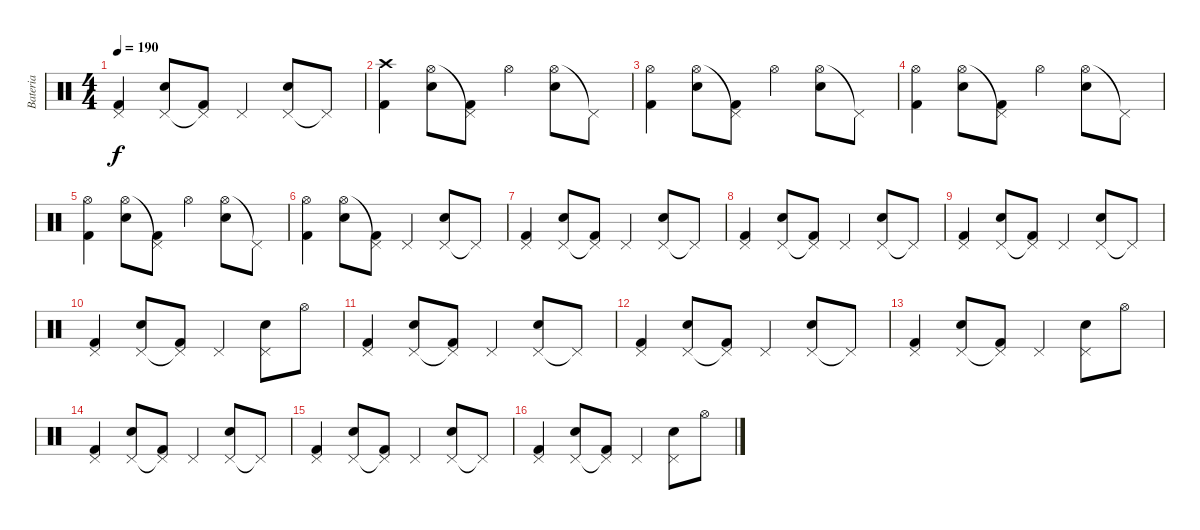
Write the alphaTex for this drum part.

\track ("Bateria" "Bateria") {instrument percussion}
\staff {score}
\articulation defaults
\ts (4 4)
\tempo 190
\clef neutral
\ks c
("Pedal Hi-Hat (hit)" "Kick (hit) 2").4{dy f} ("Pedal Hi-Hat (hit)" "Snare (hit) 2").8 ("Pedal Hi-Hat (hit)"{t} "Kick (hit) 2").8 "Pedal Hi-Hat (hit)".4 ("Pedal Hi-Hat (hit)" "Snare (hit) 2").8 "Pedal Hi-Hat (hit)"{t}.8 |
("Crash high (hit)" "Kick (hit) 2").4 ("Hi-Hat (open)" "Snare (hit) 2").8 ("Pedal Hi-Hat (hit)"{t} "Kick (hit) 2").8 "Hi-Hat (open)".4 ("Hi-Hat (open)" "Snare (hit) 2").8 "Pedal Hi-Hat (hit)"{t}.8 |
("Hi-Hat (open)" "Kick (hit) 2").4 ("Hi-Hat (open)" "Snare (hit) 2").8 ("Pedal Hi-Hat (hit)"{t} "Kick (hit) 2").8 "Hi-Hat (open)".4 ("Hi-Hat (open)" "Snare (hit) 2").8 "Pedal Hi-Hat (hit)"{t}.8 |
("Hi-Hat (open)" "Kick (hit) 2").4 ("Hi-Hat (open)" "Snare (hit) 2").8 ("Pedal Hi-Hat (hit)"{t} "Kick (hit) 2").8 "Hi-Hat (open)".4 ("Hi-Hat (open)" "Snare (hit) 2").8 "Pedal Hi-Hat (hit)"{t}.8 |
("Hi-Hat (open)" "Kick (hit) 2").4 ("Hi-Hat (open)" "Snare (hit) 2").8 ("Pedal Hi-Hat (hit)"{t} "Kick (hit) 2").8 "Hi-Hat (open)".4 ("Hi-Hat (open)" "Snare (hit) 2").8 "Pedal Hi-Hat (hit)"{t}.8 |
("Hi-Hat (open)" "Kick (hit) 2").4 ("Hi-Hat (open)" "Snare (hit) 2").8 ("Pedal Hi-Hat (hit)"{t} "Kick (hit) 2").8 "Pedal Hi-Hat (hit)".4 ("Pedal Hi-Hat (hit)" "Snare (hit) 2").8 "Pedal Hi-Hat (hit)"{t}.8 |
("Pedal Hi-Hat (hit)" "Kick (hit) 2").4 ("Pedal Hi-Hat (hit)" "Snare (hit) 2").8 ("Pedal Hi-Hat (hit)"{t} "Kick (hit) 2").8 "Pedal Hi-Hat (hit)".4 ("Pedal Hi-Hat (hit)" "Snare (hit) 2").8 "Pedal Hi-Hat (hit)"{t}.8 |
("Pedal Hi-Hat (hit)" "Kick (hit) 2").4 ("Pedal Hi-Hat (hit)" "Snare (hit) 2").8 ("Pedal Hi-Hat (hit)"{t} "Kick (hit) 2").8 "Pedal Hi-Hat (hit)".4 ("Pedal Hi-Hat (hit)" "Snare (hit) 2").8 "Pedal Hi-Hat (hit)"{t}.8 |
("Pedal Hi-Hat (hit)" "Kick (hit) 2").4 ("Pedal Hi-Hat (hit)" "Snare (hit) 2").8 ("Pedal Hi-Hat (hit)"{t} "Kick (hit) 2").8 "Pedal Hi-Hat (hit)".4 ("Pedal Hi-Hat (hit)" "Snare (hit) 2").8 "Pedal Hi-Hat (hit)"{t}.8 |
("Pedal Hi-Hat (hit)" "Kick (hit) 2").4 ("Pedal Hi-Hat (hit)" "Snare (hit) 2").8 ("Pedal Hi-Hat (hit)"{t} "Kick (hit) 2").8 "Pedal Hi-Hat (hit)".4 ("Pedal Hi-Hat (hit)" "Snare (hit) 2").8 "Hi-Hat (open)".8 |
("Pedal Hi-Hat (hit)" "Kick (hit) 2").4 ("Pedal Hi-Hat (hit)" "Snare (hit) 2").8 ("Pedal Hi-Hat (hit)"{t} "Kick (hit) 2").8 "Pedal Hi-Hat (hit)".4 ("Pedal Hi-Hat (hit)" "Snare (hit) 2").8 "Pedal Hi-Hat (hit)"{t}.8 |
("Pedal Hi-Hat (hit)" "Kick (hit) 2").4 ("Pedal Hi-Hat (hit)" "Snare (hit) 2").8 ("Pedal Hi-Hat (hit)"{t} "Kick (hit) 2").8 "Pedal Hi-Hat (hit)".4 ("Pedal Hi-Hat (hit)" "Snare (hit) 2").8 "Pedal Hi-Hat (hit)"{t}.8 |
("Pedal Hi-Hat (hit)" "Kick (hit) 2").4 ("Pedal Hi-Hat (hit)" "Snare (hit) 2").8 ("Pedal Hi-Hat (hit)"{t} "Kick (hit) 2").8 "Pedal Hi-Hat (hit)".4 ("Pedal Hi-Hat (hit)" "Snare (hit) 2").8 "Hi-Hat (open)".8 |
("Pedal Hi-Hat (hit)" "Kick (hit) 2").4 ("Pedal Hi-Hat (hit)" "Snare (hit) 2").8 ("Pedal Hi-Hat (hit)"{t} "Kick (hit) 2").8 "Pedal Hi-Hat (hit)".4 ("Pedal Hi-Hat (hit)" "Snare (hit) 2").8 "Pedal Hi-Hat (hit)"{t}.8 |
("Pedal Hi-Hat (hit)" "Kick (hit) 2").4 ("Pedal Hi-Hat (hit)" "Snare (hit) 2").8 ("Pedal Hi-Hat (hit)"{t} "Kick (hit) 2").8 "Pedal Hi-Hat (hit)".4 ("Pedal Hi-Hat (hit)" "Snare (hit) 2").8 "Pedal Hi-Hat (hit)"{t}.8 |
("Pedal Hi-Hat (hit)" "Kick (hit) 2").4 ("Pedal Hi-Hat (hit)" "Snare (hit) 2").8 ("Pedal Hi-Hat (hit)"{t} "Kick (hit) 2").8 "Pedal Hi-Hat (hit)".4 ("Pedal Hi-Hat (hit)" "Snare (hit) 2").8 "Hi-Hat (open)".8
